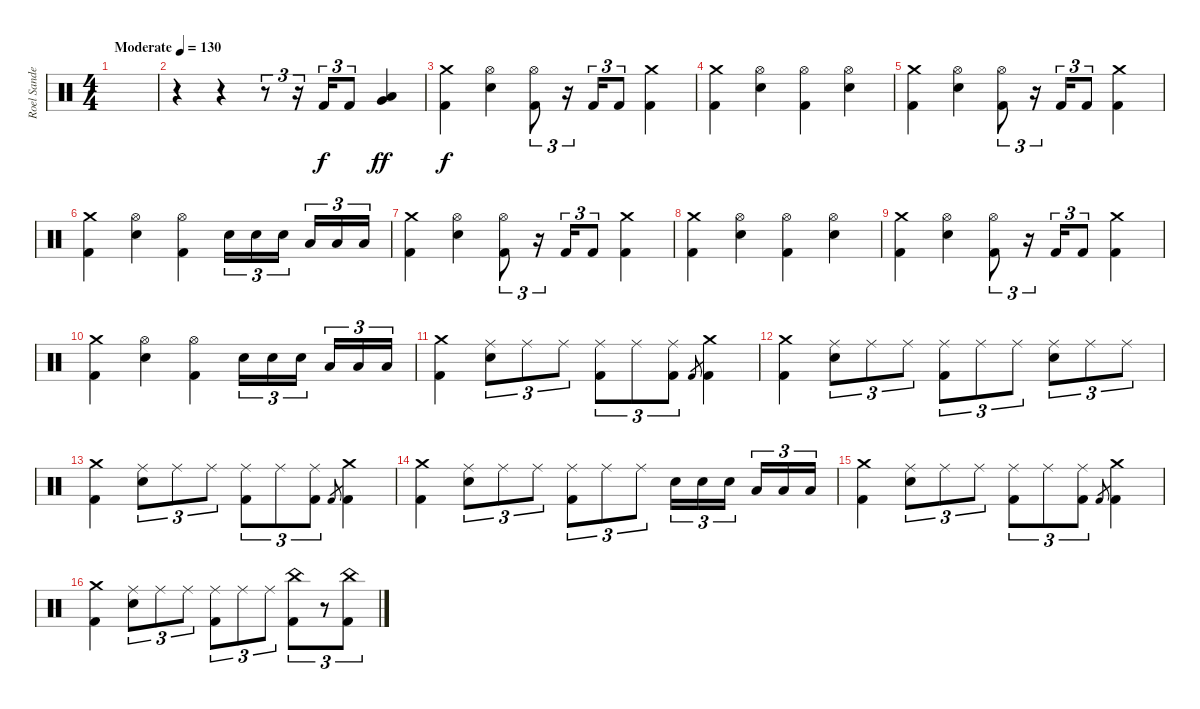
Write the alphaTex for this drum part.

\track ("Roel Sander " "Roel Sande") {instrument percussion}
\staff {score}
\articulation defaults
\ts (4 4)
\tempo (130 "Moderate")
\clef neutral
\ks c
|
r.4 r.4 r.8{tu (3 2)} r.16{tu (3 2)} "Kick (hit) 2".16{tu (3 2)} "Kick (hit) 2".8{tu (3 2)} ("Low Tom (hit)" "Very Low Tom (hit)").4{dy ff} |
("Crash medium (hit)" "Kick (hit) 2").4{dy f} ("Hi-Hat (open)" "Snare (hit) 2").4 ("Hi-Hat (open)" "Kick (hit) 2").8{tu (3 2)} r.16{tu (3 2)} "Kick (hit) 2".16{tu (3 2)} "Kick (hit) 2".8{tu (3 2)} ("Crash medium (hit)" "Kick (hit) 2").4 |
("Crash medium (hit)" "Kick (hit) 2").4 ("Hi-Hat (open)" "Snare (hit) 2").4 ("Hi-Hat (open)" "Kick (hit) 2").4 ("Hi-Hat (open)" "Snare (hit) 2").4 |
("Crash medium (hit)" "Kick (hit) 2").4 ("Hi-Hat (open)" "Snare (hit) 2").4 ("Hi-Hat (open)" "Kick (hit) 2").8{tu (3 2)} r.16{tu (3 2)} "Kick (hit) 2".16{tu (3 2)} "Kick (hit) 2".8{tu (3 2)} ("Crash medium (hit)" "Kick (hit) 2").4 |
("Crash medium (hit)" "Kick (hit) 2").4 ("Hi-Hat (open)" "Snare (hit) 2").4 ("Hi-Hat (open)" "Kick (hit) 2").4 "Snare (hit) 2".16{tu (3 2)} "Snare (hit) 2".16{tu (3 2)} "Snare (hit) 2".16{tu (3 2) beam splitsecondary} "Low Tom (hit)".16{tu (3 2)} "Low Tom (hit)".16{tu (3 2)} "Low Tom (hit)".16{tu (3 2)} |
("Crash medium (hit)" "Kick (hit) 2").4 ("Hi-Hat (open)" "Snare (hit) 2").4 ("Hi-Hat (open)" "Kick (hit) 2").8{tu (3 2)} r.16{tu (3 2)} "Kick (hit) 2".16{tu (3 2)} "Kick (hit) 2".8{tu (3 2)} ("Crash medium (hit)" "Kick (hit) 2").4 |
("Crash medium (hit)" "Kick (hit) 2").4 ("Hi-Hat (open)" "Snare (hit) 2").4 ("Hi-Hat (open)" "Kick (hit) 2").4 ("Hi-Hat (open)" "Snare (hit) 2").4 |
("Crash medium (hit)" "Kick (hit) 2").4 ("Hi-Hat (open)" "Snare (hit) 2").4 ("Hi-Hat (open)" "Kick (hit) 2").8{tu (3 2)} r.16{tu (3 2)} "Kick (hit) 2".16{tu (3 2)} "Kick (hit) 2".8{tu (3 2)} ("Crash medium (hit)" "Kick (hit) 2").4 |
("Crash medium (hit)" "Kick (hit) 2").4 ("Hi-Hat (open)" "Snare (hit) 2").4 ("Hi-Hat (open)" "Kick (hit) 2").4 "Snare (hit) 2".16{tu (3 2)} "Snare (hit) 2".16{tu (3 2)} "Snare (hit) 2".16{tu (3 2) beam splitsecondary} "Low Tom (hit)".16{tu (3 2)} "Low Tom (hit)".16{tu (3 2)} "Low Tom (hit)".16{tu (3 2)} |
("Crash medium (hit)" "Kick (hit) 2").4 ("Ride (middle)" "Snare (hit) 2").8{tu (3 2)} "Ride (middle)".8{tu (3 2)} "Ride (middle)".8{tu (3 2)} ("Ride (middle)" "Kick (hit) 2").8{tu (3 2)} "Ride (middle)".8{tu (3 2)} ("Ride (middle)" "Kick (hit) 2").8{tu (3 2)} "Kick (hit) 2".8{gr} ("Crash medium (hit)" "Kick (hit) 2").4 |
("Crash medium (hit)" "Kick (hit) 2").4 ("Ride (middle)" "Snare (hit) 2").8{tu (3 2)} "Ride (middle)".8{tu (3 2)} "Ride (middle)".8{tu (3 2)} ("Ride (middle)" "Kick (hit) 2").8{tu (3 2)} "Ride (middle)".8{tu (3 2)} "Ride (middle)".8{tu (3 2)} ("Ride (middle)" "Snare (hit) 2").8{tu (3 2)} "Ride (middle)".8{tu (3 2)} "Ride (middle)".8{tu (3 2)} |
("Crash medium (hit)" "Kick (hit) 2").4 ("Ride (middle)" "Snare (hit) 2").8{tu (3 2)} "Ride (middle)".8{tu (3 2)} "Ride (middle)".8{tu (3 2)} ("Ride (middle)" "Kick (hit) 2").8{tu (3 2)} "Ride (middle)".8{tu (3 2)} ("Ride (middle)" "Kick (hit) 2").8{tu (3 2)} "Kick (hit) 2".8{gr} ("Crash medium (hit)" "Kick (hit) 2").4 |
("Crash medium (hit)" "Kick (hit) 2").4 ("Ride (middle)" "Snare (hit) 2").8{tu (3 2)} "Ride (middle)".8{tu (3 2)} "Ride (middle)".8{tu (3 2)} ("Ride (middle)" "Kick (hit) 2").8{tu (3 2)} "Ride (middle)".8{tu (3 2)} "Ride (middle)".8{tu (3 2)} "Snare (hit) 2".16{tu (3 2)} "Snare (hit) 2".16{tu (3 2)} "Snare (hit) 2".16{tu (3 2) beam splitsecondary} "Low Tom (hit)".16{tu (3 2)} "Low Tom (hit)".16{tu (3 2)} "Low Tom (hit)".16{tu (3 2)} |
("Crash medium (hit)" "Kick (hit) 2").4 ("Ride (middle)" "Snare (hit) 2").8{tu (3 2)} "Ride (middle)".8{tu (3 2)} "Ride (middle)".8{tu (3 2)} ("Ride (middle)" "Kick (hit) 2").8{tu (3 2)} "Ride (middle)".8{tu (3 2)} ("Ride (middle)" "Kick (hit) 2").8{tu (3 2)} "Kick (hit) 2".8{gr} ("Crash medium (hit)" "Kick (hit) 2").4 |
("Crash medium (hit)" "Kick (hit) 2").4 ("Ride (middle)" "Snare (hit) 2").8{tu (3 2)} "Ride (middle)".8{tu (3 2)} "Ride (middle)".8{tu (3 2)} ("Ride (middle)" "Kick (hit) 2").8{tu (3 2)} "Ride (middle)".8{tu (3 2)} "Ride (middle)".8{tu (3 2)} ("China (hit)" "Kick (hit) 2").8{tu (3 2)} r.8{tu (3 2)} ("China (hit)" "Kick (hit) 2").8{tu (3 2)}
